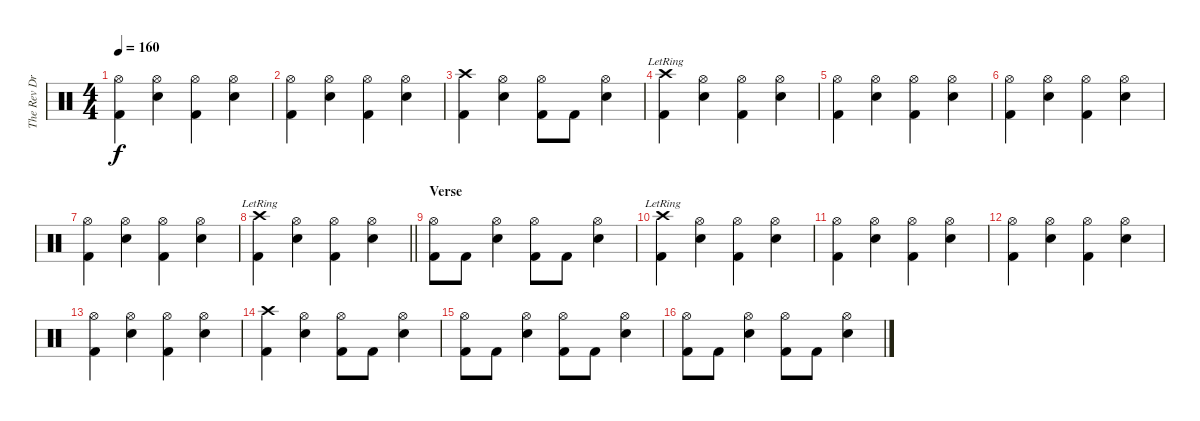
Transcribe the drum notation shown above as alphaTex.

\track ("The Rev Drum" "The Rev Dr") {instrument percussion}
\staff {score}
\articulation defaults
\ts (4 4)
\tempo 160
\clef neutral
\ks c
("Hi-Hat (open)" "Kick (hit) 2").4{dy f} ("Hi-Hat (open)" "Electric Snare (hit)").4 ("Hi-Hat (open)" "Kick (hit) 2").4 ("Hi-Hat (open)" "Electric Snare (hit)").4 |
("Hi-Hat (open)" "Kick (hit) 2").4 ("Hi-Hat (open)" "Electric Snare (hit)").4 ("Hi-Hat (open)" "Kick (hit) 2").4 ("Hi-Hat (open)" "Electric Snare (hit)").4 |
("Crash high (hit)" "Kick (hit) 2").4 ("Hi-Hat (open)" "Electric Snare (hit)").4 ("Hi-Hat (open)" "Kick (hit) 2").8 "Kick (hit) 2".8 ("Hi-Hat (open)" "Electric Snare (hit)").4 |
("Crash high (hit)" "Kick (hit) 2"{lr}).4 ("Hi-Hat (open)" "Electric Snare (hit)").4 ("Hi-Hat (open)" "Kick (hit) 2").4 ("Hi-Hat (open)" "Electric Snare (hit)").4 |
("Hi-Hat (open)" "Kick (hit) 2").4 ("Hi-Hat (open)" "Electric Snare (hit)").4 ("Hi-Hat (open)" "Kick (hit) 2").4 ("Hi-Hat (open)" "Electric Snare (hit)").4 |
("Hi-Hat (open)" "Kick (hit) 2").4 ("Hi-Hat (open)" "Electric Snare (hit)").4 ("Hi-Hat (open)" "Kick (hit) 2").4 ("Hi-Hat (open)" "Electric Snare (hit)").4 |
("Hi-Hat (open)" "Kick (hit) 2").4 ("Hi-Hat (open)" "Electric Snare (hit)").4 ("Hi-Hat (open)" "Kick (hit) 2").4 ("Hi-Hat (open)" "Electric Snare (hit)").4 |
\barLineRight lightlight
("Crash high (hit)" "Kick (hit) 2"{lr}).4 ("Hi-Hat (open)" "Electric Snare (hit)").4 ("Hi-Hat (open)" "Kick (hit) 2").4 ("Hi-Hat (open)" "Electric Snare (hit)").4 |
\section ("" "Verse ")
("Hi-Hat (open)" "Kick (hit) 2").8 "Kick (hit) 2".8 ("Hi-Hat (open)" "Electric Snare (hit)").4 ("Hi-Hat (open)" "Kick (hit) 2").8 "Kick (hit) 2".8 ("Hi-Hat (open)" "Electric Snare (hit)").4 |
("Crash high (hit)" "Kick (hit) 2"{lr}).4 ("Hi-Hat (open)" "Electric Snare (hit)").4 ("Hi-Hat (open)" "Kick (hit) 2").4 ("Hi-Hat (open)" "Electric Snare (hit)").4 |
("Hi-Hat (open)" "Kick (hit) 2").4 ("Hi-Hat (open)" "Electric Snare (hit)").4 ("Hi-Hat (open)" "Kick (hit) 2").4 ("Hi-Hat (open)" "Electric Snare (hit)").4 |
("Hi-Hat (open)" "Kick (hit) 2").4 ("Hi-Hat (open)" "Electric Snare (hit)").4 ("Hi-Hat (open)" "Kick (hit) 2").4 ("Hi-Hat (open)" "Electric Snare (hit)").4 |
("Hi-Hat (open)" "Kick (hit) 2").4 ("Hi-Hat (open)" "Electric Snare (hit)").4 ("Hi-Hat (open)" "Kick (hit) 2").4 ("Hi-Hat (open)" "Electric Snare (hit)").4 |
("Crash high (hit)" "Kick (hit) 2").4 ("Hi-Hat (open)" "Electric Snare (hit)").4 ("Hi-Hat (open)" "Kick (hit) 2").8 "Kick (hit) 2".8 ("Hi-Hat (open)" "Electric Snare (hit)").4 |
("Hi-Hat (open)" "Kick (hit) 2").8 "Kick (hit) 2".8 ("Hi-Hat (open)" "Electric Snare (hit)").4 ("Hi-Hat (open)" "Kick (hit) 2").8 "Kick (hit) 2".8 ("Hi-Hat (open)" "Electric Snare (hit)").4 |
("Hi-Hat (open)" "Kick (hit) 2").8 "Kick (hit) 2".8 ("Hi-Hat (open)" "Electric Snare (hit)").4 ("Hi-Hat (open)" "Kick (hit) 2").8 "Kick (hit) 2".8 ("Hi-Hat (open)" "Electric Snare (hit)").4
